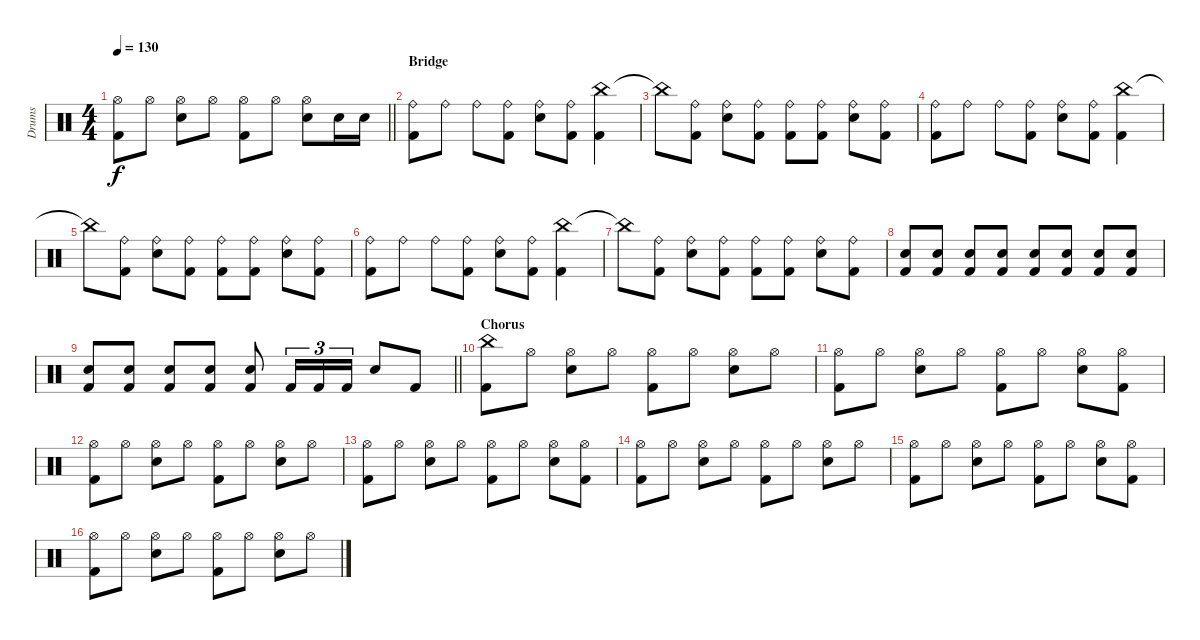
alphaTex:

\track ("Drums" "Drums") {instrument percussion}
\staff {score}
\articulation defaults
\ts (4 4)
\tempo 130
\clef neutral
\barLineRight lightlight
\ks c
("Hi-Hat (open)" "Kick (hit) 2").8{dy f} "Hi-Hat (open)".8 ("Hi-Hat (open)" "Snare (hit) 2").8 "Hi-Hat (open)".8 ("Hi-Hat (open)" "Kick (hit) 2").8 "Hi-Hat (open)".8 ("Hi-Hat (open)" "Snare (hit) 2").8 "Snare (hit) 2".16 "Snare (hit) 2".16 |
\section ("" "Bridge")
("Ride (bell)" "Kick (hit) 2").8 "Ride (bell)".8 "Ride (bell)".8 ("Ride (bell)" "Kick (hit) 2").8 ("Ride (bell)" "Snare (hit) 2").8 ("Ride (bell)" "Kick (hit) 2").8 ("China (hit)" "Kick (hit) 2").4 |
"China (hit)"{t}.8 ("Ride (bell)" "Kick (hit) 2").8 ("Ride (bell)" "Snare (hit) 2").8 ("Ride (bell)" "Kick (hit) 2").8 ("Ride (bell)" "Kick (hit) 2").8 ("Ride (bell)" "Kick (hit) 2").8 ("Ride (bell)" "Snare (hit) 2").8 ("Ride (bell)" "Kick (hit) 2").8 |
("Ride (bell)" "Kick (hit) 2").8 "Ride (bell)".8 "Ride (bell)".8 ("Ride (bell)" "Kick (hit) 2").8 ("Ride (bell)" "Snare (hit) 2").8 ("Ride (bell)" "Kick (hit) 2").8 ("China (hit)" "Kick (hit) 2").4 |
"China (hit)"{t}.8 ("Ride (bell)" "Kick (hit) 2").8 ("Ride (bell)" "Snare (hit) 2").8 ("Ride (bell)" "Kick (hit) 2").8 ("Ride (bell)" "Kick (hit) 2").8 ("Ride (bell)" "Kick (hit) 2").8 ("Ride (bell)" "Snare (hit) 2").8 ("Ride (bell)" "Kick (hit) 2").8 |
("Ride (bell)" "Kick (hit) 2").8 "Ride (bell)".8 "Ride (bell)".8 ("Ride (bell)" "Kick (hit) 2").8 ("Ride (bell)" "Snare (hit) 2").8 ("Ride (bell)" "Kick (hit) 2").8 ("China (hit)" "Kick (hit) 2").4 |
"China (hit)"{t}.8 ("Ride (bell)" "Kick (hit) 2").8 ("Ride (bell)" "Snare (hit) 2").8 ("Ride (bell)" "Kick (hit) 2").8 ("Ride (bell)" "Kick (hit) 2").8 ("Ride (bell)" "Kick (hit) 2").8 ("Ride (bell)" "Snare (hit) 2").8 ("Ride (bell)" "Kick (hit) 2").8 |
("Snare (hit) 2" "Kick (hit) 2").8 ("Snare (hit) 2" "Kick (hit) 2").8 ("Snare (hit) 2" "Kick (hit) 2").8 ("Snare (hit) 2" "Kick (hit) 2").8 ("Snare (hit) 2" "Kick (hit) 2").8 ("Snare (hit) 2" "Kick (hit) 2").8 ("Snare (hit) 2" "Kick (hit) 2").8 ("Snare (hit) 2" "Kick (hit) 2").8 |
\barLineRight lightlight
("Snare (hit) 2" "Kick (hit) 2").8 ("Snare (hit) 2" "Kick (hit) 2").8 ("Snare (hit) 2" "Kick (hit) 2").8 ("Snare (hit) 2" "Kick (hit) 2").8 ("Snare (hit) 2" "Kick (hit) 2").8 "Kick (hit) 2".16{tu (3 2)} "Kick (hit) 2".16{tu (3 2)} "Kick (hit) 2".16{tu (3 2)} "Snare (hit) 2".8 "Kick (hit) 2".8 |
\section ("" "Chorus")
("China (hit)" "Kick (hit) 2").8 "Hi-Hat (open)".8 ("Hi-Hat (open)" "Snare (hit) 2").8 "Hi-Hat (open)".8 ("Hi-Hat (open)" "Kick (hit) 2").8 "Hi-Hat (open)".8 ("Hi-Hat (open)" "Snare (hit) 2").8 "Hi-Hat (open)".8 |
("Hi-Hat (open)" "Kick (hit) 2").8 "Hi-Hat (open)".8 ("Hi-Hat (open)" "Snare (hit) 2").8 "Hi-Hat (open)".8 ("Hi-Hat (open)" "Kick (hit) 2").8 "Hi-Hat (open)".8 ("Hi-Hat (open)" "Snare (hit) 2").8 ("Hi-Hat (open)" "Kick (hit) 2").8 |
("Hi-Hat (open)" "Kick (hit) 2").8 "Hi-Hat (open)".8 ("Hi-Hat (open)" "Snare (hit) 2").8 "Hi-Hat (open)".8 ("Hi-Hat (open)" "Kick (hit) 2").8 "Hi-Hat (open)".8 ("Hi-Hat (open)" "Snare (hit) 2").8 "Hi-Hat (open)".8 |
("Hi-Hat (open)" "Kick (hit) 2").8 "Hi-Hat (open)".8 ("Hi-Hat (open)" "Snare (hit) 2").8 "Hi-Hat (open)".8 ("Hi-Hat (open)" "Kick (hit) 2").8 "Hi-Hat (open)".8 ("Hi-Hat (open)" "Snare (hit) 2").8 ("Hi-Hat (open)" "Kick (hit) 2").8 |
("Hi-Hat (open)" "Kick (hit) 2").8 "Hi-Hat (open)".8 ("Hi-Hat (open)" "Snare (hit) 2").8 "Hi-Hat (open)".8 ("Hi-Hat (open)" "Kick (hit) 2").8 "Hi-Hat (open)".8 ("Hi-Hat (open)" "Snare (hit) 2").8 "Hi-Hat (open)".8 |
("Hi-Hat (open)" "Kick (hit) 2").8 "Hi-Hat (open)".8 ("Hi-Hat (open)" "Snare (hit) 2").8 "Hi-Hat (open)".8 ("Hi-Hat (open)" "Kick (hit) 2").8 "Hi-Hat (open)".8 ("Hi-Hat (open)" "Snare (hit) 2").8 ("Hi-Hat (open)" "Kick (hit) 2").8 |
("Hi-Hat (open)" "Kick (hit) 2").8 "Hi-Hat (open)".8 ("Hi-Hat (open)" "Snare (hit) 2").8 "Hi-Hat (open)".8 ("Hi-Hat (open)" "Kick (hit) 2").8 "Hi-Hat (open)".8 ("Hi-Hat (open)" "Snare (hit) 2").8 "Hi-Hat (open)".8
